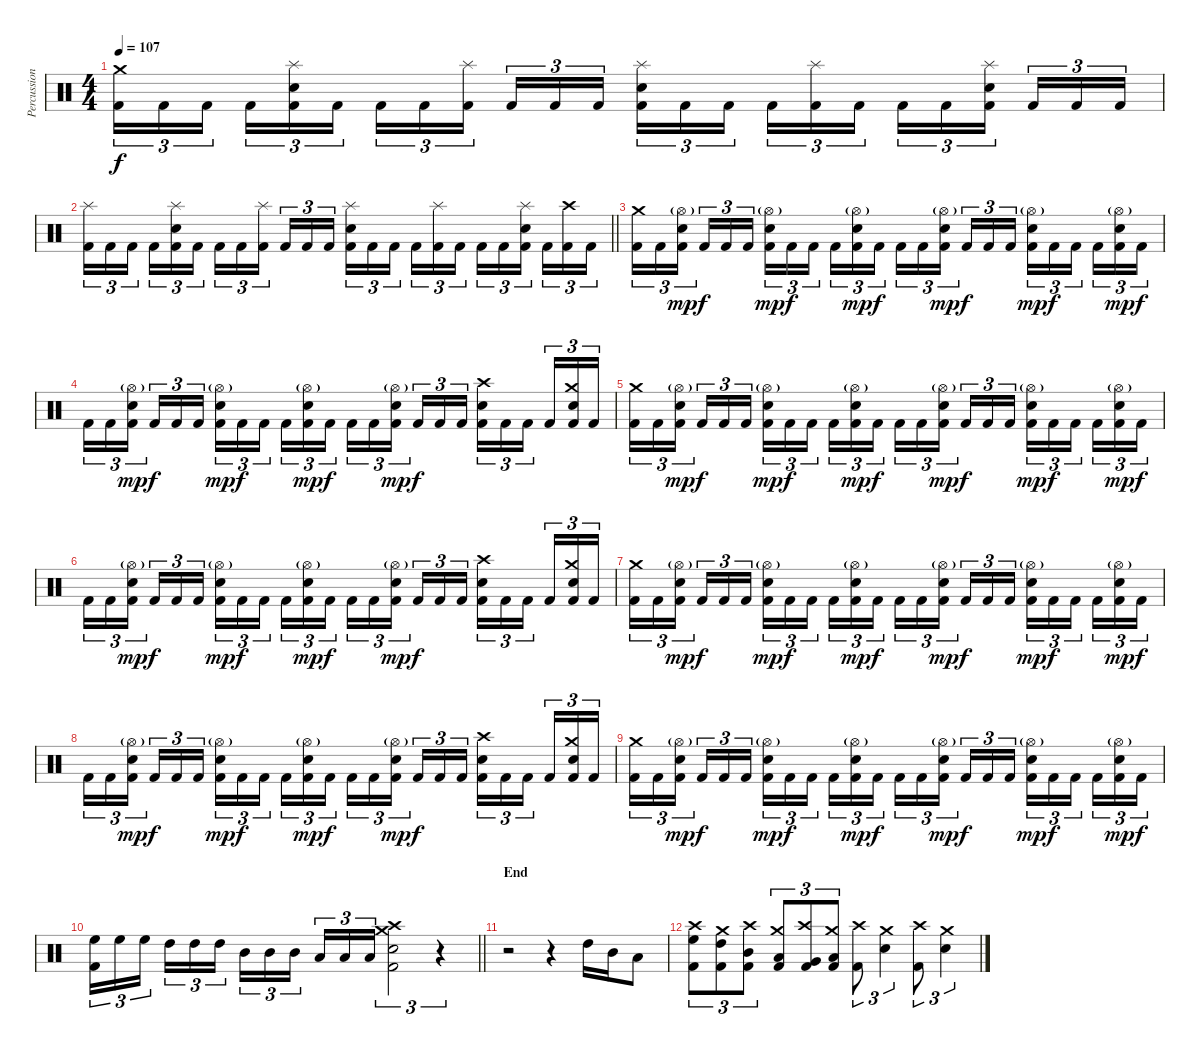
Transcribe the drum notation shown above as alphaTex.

\track ("Percussion" "Percussion") {instrument percussion}
\staff {score}
\articulation defaults
\ts (4 4)
\tempo 107
\clef neutral
\ks c
("Kick (hit) 2" "Crash medium (hit)").16{tu (3 2) dy f} "Kick (hit) 2".16{tu (3 2)} "Kick (hit) 2".16{tu (3 2)} "Kick (hit) 2".16{tu (3 2)} ("Kick (hit) 2" "Snare (hit) 2" "Splash (hit)").16{tu (3 2)} "Kick (hit) 2".16{tu (3 2)} "Kick (hit) 2".16{tu (3 2)} "Kick (hit) 2".16{tu (3 2)} ("Kick (hit) 2" "Splash (hit)").16{tu (3 2)} "Kick (hit) 2".16{tu (3 2)} "Kick (hit) 2".16{tu (3 2)} "Kick (hit) 2".16{tu (3 2)} ("Kick (hit) 2" "Snare (hit) 2" "Splash (hit)").16{tu (3 2)} "Kick (hit) 2".16{tu (3 2)} "Kick (hit) 2".16{tu (3 2)} "Kick (hit) 2".16{tu (3 2)} ("Kick (hit) 2" "Splash (hit)").16{tu (3 2)} "Kick (hit) 2".16{tu (3 2)} "Kick (hit) 2".16{tu (3 2)} "Kick (hit) 2".16{tu (3 2)} ("Kick (hit) 2" "Snare (hit) 2" "Splash (hit)").16{tu (3 2)} "Kick (hit) 2".16{tu (3 2)} "Kick (hit) 2".16{tu (3 2)} "Kick (hit) 2".16{tu (3 2)} |
\barLineRight lightlight
("Kick (hit) 2" "Splash (hit)").16{tu (3 2)} "Kick (hit) 2".16{tu (3 2)} "Kick (hit) 2".16{tu (3 2)} "Kick (hit) 2".16{tu (3 2)} ("Kick (hit) 2" "Snare (hit) 2" "Splash (hit)").16{tu (3 2)} "Kick (hit) 2".16{tu (3 2)} "Kick (hit) 2".16{tu (3 2)} "Kick (hit) 2".16{tu (3 2)} ("Kick (hit) 2" "Splash (hit)").16{tu (3 2)} "Kick (hit) 2".16{tu (3 2)} "Kick (hit) 2".16{tu (3 2)} "Kick (hit) 2".16{tu (3 2)} ("Kick (hit) 2" "Snare (hit) 2" "Splash (hit)").16{tu (3 2)} "Kick (hit) 2".16{tu (3 2)} "Kick (hit) 2".16{tu (3 2)} "Kick (hit) 2".16{tu (3 2)} ("Kick (hit) 2" "Splash (hit)").16{tu (3 2)} "Kick (hit) 2".16{tu (3 2)} "Kick (hit) 2".16{tu (3 2)} "Kick (hit) 2".16{tu (3 2)} ("Kick (hit) 2" "Snare (hit) 2" "Splash (hit)").16{tu (3 2)} "Kick (hit) 2".16{tu (3 2)} ("Kick (hit) 2" "Crash high (hit)").16{tu (3 2)} "Kick (hit) 2".16{tu (3 2)} |
\section ("" "")
("Kick (hit) 2" "Crash medium (hit)").16{tu (3 2)} "Kick (hit) 2".16{tu (3 2)} ("Kick (hit) 2" "Snare (hit) 2" "Hi-Hat (open)"{g}).16{tu (3 2) dy mp} "Kick (hit) 2".16{tu (3 2) dy f} "Kick (hit) 2".16{tu (3 2)} "Kick (hit) 2".16{tu (3 2)} ("Kick (hit) 2" "Snare (hit) 2" "Hi-Hat (open)"{g}).16{tu (3 2) dy mp} "Kick (hit) 2".16{tu (3 2) dy f} "Kick (hit) 2".16{tu (3 2)} "Kick (hit) 2".16{tu (3 2)} ("Kick (hit) 2" "Snare (hit) 2" "Hi-Hat (open)"{g}).16{tu (3 2) dy mp} "Kick (hit) 2".16{tu (3 2) dy f} "Kick (hit) 2".16{tu (3 2)} "Kick (hit) 2".16{tu (3 2)} ("Kick (hit) 2" "Snare (hit) 2" "Hi-Hat (open)"{g}).16{tu (3 2) dy mp} "Kick (hit) 2".16{tu (3 2) dy f} "Kick (hit) 2".16{tu (3 2)} "Kick (hit) 2".16{tu (3 2)} ("Kick (hit) 2" "Snare (hit) 2" "Hi-Hat (open)"{g}).16{tu (3 2) dy mp} "Kick (hit) 2".16{tu (3 2) dy f} "Kick (hit) 2".16{tu (3 2)} "Kick (hit) 2".16{tu (3 2)} ("Kick (hit) 2" "Snare (hit) 2" "Hi-Hat (open)"{g}).16{tu (3 2) dy mp} "Kick (hit) 2".16{tu (3 2) dy f} |
"Kick (hit) 2".16{tu (3 2)} "Kick (hit) 2".16{tu (3 2)} ("Kick (hit) 2" "Snare (hit) 2" "Hi-Hat (open)"{g}).16{tu (3 2) dy mp} "Kick (hit) 2".16{tu (3 2) dy f} "Kick (hit) 2".16{tu (3 2)} "Kick (hit) 2".16{tu (3 2)} ("Kick (hit) 2" "Snare (hit) 2" "Hi-Hat (open)"{g}).16{tu (3 2) dy mp} "Kick (hit) 2".16{tu (3 2) dy f} "Kick (hit) 2".16{tu (3 2)} "Kick (hit) 2".16{tu (3 2)} ("Kick (hit) 2" "Snare (hit) 2" "Hi-Hat (open)"{g}).16{tu (3 2) dy mp} "Kick (hit) 2".16{tu (3 2) dy f} "Kick (hit) 2".16{tu (3 2)} "Kick (hit) 2".16{tu (3 2)} ("Kick (hit) 2" "Snare (hit) 2" "Hi-Hat (open)"{g}).16{tu (3 2) dy mp} "Kick (hit) 2".16{tu (3 2) dy f} "Kick (hit) 2".16{tu (3 2)} "Kick (hit) 2".16{tu (3 2)} ("Kick (hit) 2" "Snare (hit) 2" "Crash high (hit)").16{tu (3 2)} "Kick (hit) 2".16{tu (3 2)} "Kick (hit) 2".16{tu (3 2)} "Kick (hit) 2".16{tu (3 2)} ("Kick (hit) 2" "Snare (hit) 2" "Crash medium (hit)").16{tu (3 2)} "Kick (hit) 2".16{tu (3 2)} |
("Kick (hit) 2" "Crash medium (hit)").16{tu (3 2)} "Kick (hit) 2".16{tu (3 2)} ("Kick (hit) 2" "Snare (hit) 2" "Hi-Hat (open)"{g}).16{tu (3 2) dy mp} "Kick (hit) 2".16{tu (3 2) dy f} "Kick (hit) 2".16{tu (3 2)} "Kick (hit) 2".16{tu (3 2)} ("Kick (hit) 2" "Snare (hit) 2" "Hi-Hat (open)"{g}).16{tu (3 2) dy mp} "Kick (hit) 2".16{tu (3 2) dy f} "Kick (hit) 2".16{tu (3 2)} "Kick (hit) 2".16{tu (3 2)} ("Kick (hit) 2" "Snare (hit) 2" "Hi-Hat (open)"{g}).16{tu (3 2) dy mp} "Kick (hit) 2".16{tu (3 2) dy f} "Kick (hit) 2".16{tu (3 2)} "Kick (hit) 2".16{tu (3 2)} ("Kick (hit) 2" "Snare (hit) 2" "Hi-Hat (open)"{g}).16{tu (3 2) dy mp} "Kick (hit) 2".16{tu (3 2) dy f} "Kick (hit) 2".16{tu (3 2)} "Kick (hit) 2".16{tu (3 2)} ("Kick (hit) 2" "Snare (hit) 2" "Hi-Hat (open)"{g}).16{tu (3 2) dy mp} "Kick (hit) 2".16{tu (3 2) dy f} "Kick (hit) 2".16{tu (3 2)} "Kick (hit) 2".16{tu (3 2)} ("Kick (hit) 2" "Snare (hit) 2" "Hi-Hat (open)"{g}).16{tu (3 2) dy mp} "Kick (hit) 2".16{tu (3 2) dy f} |
"Kick (hit) 2".16{tu (3 2)} "Kick (hit) 2".16{tu (3 2)} ("Kick (hit) 2" "Snare (hit) 2" "Hi-Hat (open)"{g}).16{tu (3 2) dy mp} "Kick (hit) 2".16{tu (3 2) dy f} "Kick (hit) 2".16{tu (3 2)} "Kick (hit) 2".16{tu (3 2)} ("Kick (hit) 2" "Snare (hit) 2" "Hi-Hat (open)"{g}).16{tu (3 2) dy mp} "Kick (hit) 2".16{tu (3 2) dy f} "Kick (hit) 2".16{tu (3 2)} "Kick (hit) 2".16{tu (3 2)} ("Kick (hit) 2" "Snare (hit) 2" "Hi-Hat (open)"{g}).16{tu (3 2) dy mp} "Kick (hit) 2".16{tu (3 2) dy f} "Kick (hit) 2".16{tu (3 2)} "Kick (hit) 2".16{tu (3 2)} ("Kick (hit) 2" "Snare (hit) 2" "Hi-Hat (open)"{g}).16{tu (3 2) dy mp} "Kick (hit) 2".16{tu (3 2) dy f} "Kick (hit) 2".16{tu (3 2)} "Kick (hit) 2".16{tu (3 2)} ("Kick (hit) 2" "Snare (hit) 2" "Crash high (hit)").16{tu (3 2)} "Kick (hit) 2".16{tu (3 2)} "Kick (hit) 2".16{tu (3 2)} "Kick (hit) 2".16{tu (3 2)} ("Kick (hit) 2" "Snare (hit) 2" "Crash medium (hit)").16{tu (3 2)} "Kick (hit) 2".16{tu (3 2)} |
("Kick (hit) 2" "Crash medium (hit)").16{tu (3 2)} "Kick (hit) 2".16{tu (3 2)} ("Kick (hit) 2" "Snare (hit) 2" "Hi-Hat (open)"{g}).16{tu (3 2) dy mp} "Kick (hit) 2".16{tu (3 2) dy f} "Kick (hit) 2".16{tu (3 2)} "Kick (hit) 2".16{tu (3 2)} ("Kick (hit) 2" "Snare (hit) 2" "Hi-Hat (open)"{g}).16{tu (3 2) dy mp} "Kick (hit) 2".16{tu (3 2) dy f} "Kick (hit) 2".16{tu (3 2)} "Kick (hit) 2".16{tu (3 2)} ("Kick (hit) 2" "Snare (hit) 2" "Hi-Hat (open)"{g}).16{tu (3 2) dy mp} "Kick (hit) 2".16{tu (3 2) dy f} "Kick (hit) 2".16{tu (3 2)} "Kick (hit) 2".16{tu (3 2)} ("Kick (hit) 2" "Snare (hit) 2" "Hi-Hat (open)"{g}).16{tu (3 2) dy mp} "Kick (hit) 2".16{tu (3 2) dy f} "Kick (hit) 2".16{tu (3 2)} "Kick (hit) 2".16{tu (3 2)} ("Kick (hit) 2" "Snare (hit) 2" "Hi-Hat (open)"{g}).16{tu (3 2) dy mp} "Kick (hit) 2".16{tu (3 2) dy f} "Kick (hit) 2".16{tu (3 2)} "Kick (hit) 2".16{tu (3 2)} ("Kick (hit) 2" "Snare (hit) 2" "Hi-Hat (open)"{g}).16{tu (3 2) dy mp} "Kick (hit) 2".16{tu (3 2) dy f} |
"Kick (hit) 2".16{tu (3 2)} "Kick (hit) 2".16{tu (3 2)} ("Kick (hit) 2" "Snare (hit) 2" "Hi-Hat (open)"{g}).16{tu (3 2) dy mp} "Kick (hit) 2".16{tu (3 2) dy f} "Kick (hit) 2".16{tu (3 2)} "Kick (hit) 2".16{tu (3 2)} ("Kick (hit) 2" "Snare (hit) 2" "Hi-Hat (open)"{g}).16{tu (3 2) dy mp} "Kick (hit) 2".16{tu (3 2) dy f} "Kick (hit) 2".16{tu (3 2)} "Kick (hit) 2".16{tu (3 2)} ("Kick (hit) 2" "Snare (hit) 2" "Hi-Hat (open)"{g}).16{tu (3 2) dy mp} "Kick (hit) 2".16{tu (3 2) dy f} "Kick (hit) 2".16{tu (3 2)} "Kick (hit) 2".16{tu (3 2)} ("Kick (hit) 2" "Snare (hit) 2" "Hi-Hat (open)"{g}).16{tu (3 2) dy mp} "Kick (hit) 2".16{tu (3 2) dy f} "Kick (hit) 2".16{tu (3 2)} "Kick (hit) 2".16{tu (3 2)} ("Kick (hit) 2" "Snare (hit) 2" "Crash high (hit)").16{tu (3 2)} "Kick (hit) 2".16{tu (3 2)} "Kick (hit) 2".16{tu (3 2)} "Kick (hit) 2".16{tu (3 2)} ("Kick (hit) 2" "Snare (hit) 2" "Crash medium (hit)").16{tu (3 2)} "Kick (hit) 2".16{tu (3 2)} |
("Kick (hit) 2" "Crash medium (hit)").16{tu (3 2)} "Kick (hit) 2".16{tu (3 2)} ("Kick (hit) 2" "Snare (hit) 2" "Hi-Hat (open)"{g}).16{tu (3 2) dy mp} "Kick (hit) 2".16{tu (3 2) dy f} "Kick (hit) 2".16{tu (3 2)} "Kick (hit) 2".16{tu (3 2)} ("Kick (hit) 2" "Snare (hit) 2" "Hi-Hat (open)"{g}).16{tu (3 2) dy mp} "Kick (hit) 2".16{tu (3 2) dy f} "Kick (hit) 2".16{tu (3 2)} "Kick (hit) 2".16{tu (3 2)} ("Kick (hit) 2" "Snare (hit) 2" "Hi-Hat (open)"{g}).16{tu (3 2) dy mp} "Kick (hit) 2".16{tu (3 2) dy f} "Kick (hit) 2".16{tu (3 2)} "Kick (hit) 2".16{tu (3 2)} ("Kick (hit) 2" "Snare (hit) 2" "Hi-Hat (open)"{g}).16{tu (3 2) dy mp} "Kick (hit) 2".16{tu (3 2) dy f} "Kick (hit) 2".16{tu (3 2)} "Kick (hit) 2".16{tu (3 2)} ("Kick (hit) 2" "Snare (hit) 2" "Hi-Hat (open)"{g}).16{tu (3 2) dy mp} "Kick (hit) 2".16{tu (3 2) dy f} "Kick (hit) 2".16{tu (3 2)} "Kick (hit) 2".16{tu (3 2)} ("Kick (hit) 2" "Snare (hit) 2" "Hi-Hat (open)"{g}).16{tu (3 2) dy mp} "Kick (hit) 2".16{tu (3 2) dy f} |
\barLineRight lightlight
("Kick (hit) 2" "High Floor Tom (hit)").16{tu (3 2)} "High Floor Tom (hit)".16{tu (3 2)} "High Floor Tom (hit)".16{tu (3 2)} "High Tom (hit)".16{tu (3 2)} "High Tom (hit)".16{tu (3 2)} "High Tom (hit)".16{tu (3 2)} "Mid Tom (hit)".16{tu (3 2)} "Mid Tom (hit)".16{tu (3 2)} "Mid Tom (hit)".16{tu (3 2)} "Low Tom (hit)".16{tu (3 2)} "Low Tom (hit)".16{tu (3 2)} "Low Tom (hit)".16{tu (3 2)} ("Kick (hit) 2" "Snare (hit) 2" "Crash medium (hit)" "Crash high (hit)").2{tu (3 2)} r.4{tu (3 2)} |
\section ("" "End")
r.2 r.4 "High Tom (hit)".16 "Mid Tom (hit)".16 "Low Tom (hit)".8 |
("Kick (hit) 2" "High Floor Tom (hit)" "Crash high (hit)").8{tu (3 2)} ("Kick (hit) 2" "High Tom (hit)" "Crash medium (hit)").8{tu (3 2)} ("Kick (hit) 2" "Mid Tom (hit)" "Crash high (hit)").8{tu (3 2)} ("Kick (hit) 2" "Low Tom (hit)" "Crash medium (hit)").8{tu (3 2)} ("Kick (hit) 2" "Very Low Tom (hit)" "Crash high (hit)").8{tu (3 2)} ("Kick (hit) 2" "Low Floor Tom (hit)" "Crash medium (hit)").8{tu (3 2)} ("Kick (hit) 2" "Crash high (hit)").8{tu (3 2)} ("Snare (hit) 2" "Crash medium (hit)").4{tu (3 2)} ("Kick (hit) 2" "Crash high (hit)").8{tu (3 2)} ("Snare (hit) 2" "Crash medium (hit)").4{tu (3 2)}
